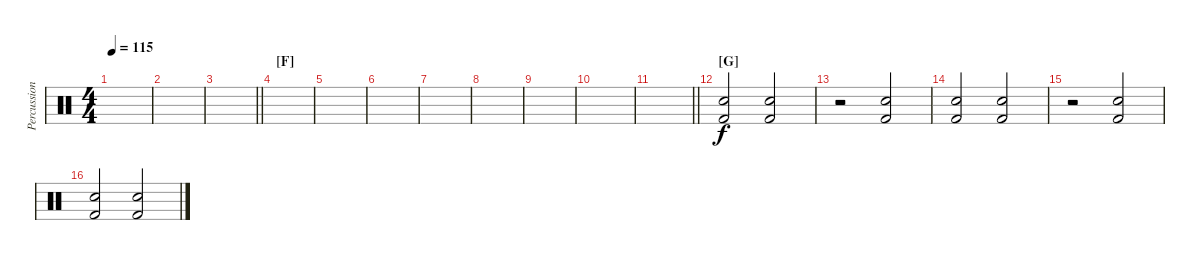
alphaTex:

\track ("Percussions" "Percussion") {instrument percussion}
\staff {score}
\articulation defaults
\ts (4 4)
\tempo 115
\clef neutral
\ks c
|
|
\barLineRight lightlight
|
\section ("" "[F]")
|
|
|
|
|
|
|
\barLineRight lightlight
|
\section ("" "[G]")
("Electric Snare (hit)" "Kick (hit) 2").2 ("Electric Snare (hit)" "Kick (hit) 2").2 |
r.2 ("Electric Snare (hit)" "Kick (hit) 2").2 |
("Electric Snare (hit)" "Kick (hit) 2").2 ("Electric Snare (hit)" "Kick (hit) 2").2 |
r.2 ("Electric Snare (hit)" "Kick (hit) 2").2 |
("Electric Snare (hit)" "Kick (hit) 2").2 ("Electric Snare (hit)" "Kick (hit) 2").2
